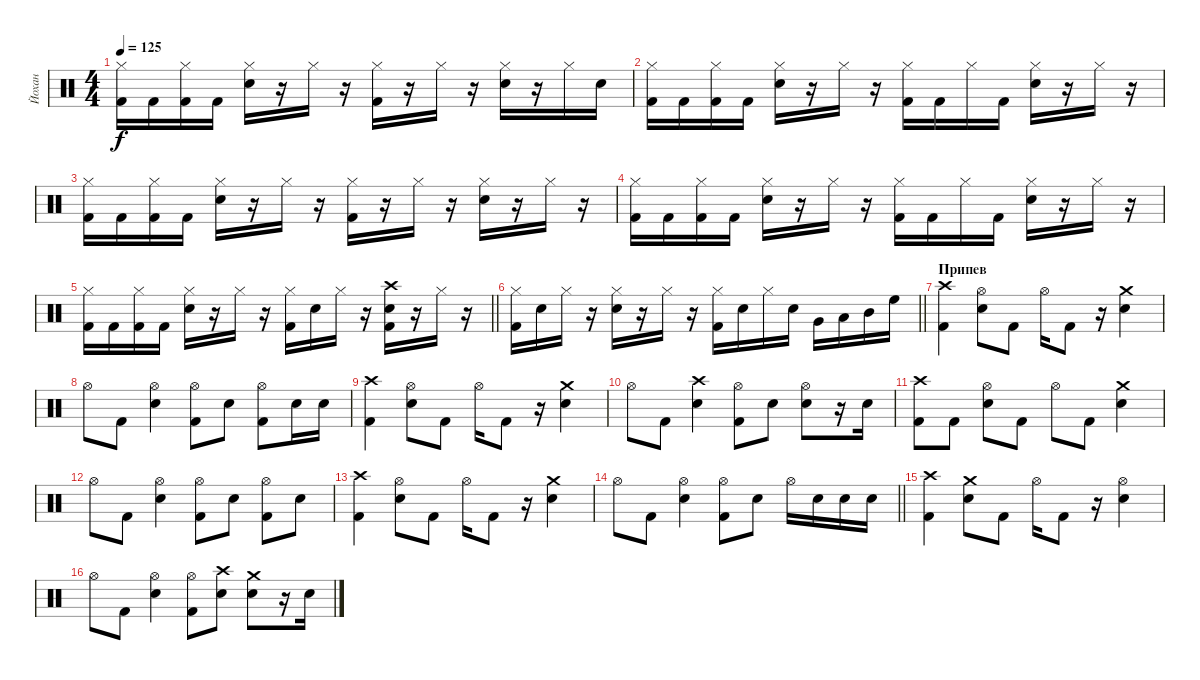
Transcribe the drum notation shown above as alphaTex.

\track ("Йохан" "Йохан") {instrument percussion}
\staff {score}
\articulation defaults
\ts (4 4)
\tempo 125
\clef neutral
\ks c
("Hi-Hat (closed)" "Kick (hit) 2").16{dy f} "Kick (hit) 2".16 ("Hi-Hat (closed)" "Kick (hit) 2").16 "Kick (hit) 2".16 ("Hi-Hat (closed)" "Snare (hit) 2").16 r.16 "Hi-Hat (closed)".16 r.16 ("Hi-Hat (closed)" "Kick (hit) 2").16 r.16 "Hi-Hat (closed)".16 r.16 ("Hi-Hat (closed)" "Snare (hit) 2").16 r.16 "Hi-Hat (closed)".16 "Snare (hit) 2".16 |
("Hi-Hat (closed)" "Kick (hit) 2").16 "Kick (hit) 2".16 ("Hi-Hat (closed)" "Kick (hit) 2").16 "Kick (hit) 2".16 ("Hi-Hat (closed)" "Snare (hit) 2").16 r.16 "Hi-Hat (closed)".16 r.16 ("Hi-Hat (closed)" "Kick (hit) 2").16 "Kick (hit) 2".16 "Hi-Hat (closed)".16 "Kick (hit) 2".16 ("Hi-Hat (closed)" "Snare (hit) 2").16 r.16 "Hi-Hat (closed)".16 r.16 |
("Hi-Hat (closed)" "Kick (hit) 2").16 "Kick (hit) 2".16 ("Hi-Hat (closed)" "Kick (hit) 2").16 "Kick (hit) 2".16 ("Hi-Hat (closed)" "Snare (hit) 2").16 r.16 "Hi-Hat (closed)".16 r.16 ("Hi-Hat (closed)" "Kick (hit) 2").16 r.16 "Hi-Hat (closed)".16 r.16 ("Hi-Hat (closed)" "Snare (hit) 2").16 r.16 "Hi-Hat (closed)".16 r.16 |
("Hi-Hat (closed)" "Kick (hit) 2").16 "Kick (hit) 2".16 ("Hi-Hat (closed)" "Kick (hit) 2").16 "Kick (hit) 2".16 ("Hi-Hat (closed)" "Snare (hit) 2").16 r.16 "Hi-Hat (closed)".16 r.16 ("Hi-Hat (closed)" "Kick (hit) 2").16 "Kick (hit) 2".16 "Hi-Hat (closed)".16 "Kick (hit) 2".16 ("Hi-Hat (closed)" "Snare (hit) 2").16 r.16 "Hi-Hat (closed)".16 r.16 |
\barLineRight lightlight
("Hi-Hat (closed)" "Kick (hit) 2").16 "Kick (hit) 2".16 ("Hi-Hat (closed)" "Kick (hit) 2").16 "Kick (hit) 2".16 ("Hi-Hat (closed)" "Snare (hit) 2").16 r.16 "Hi-Hat (closed)".16 r.16 ("Hi-Hat (closed)" "Kick (hit) 2").16 "Snare (hit) 2".16 "Hi-Hat (closed)".16 r.16 ("Crash high (hit)" "Snare (hit) 2" "Kick (hit) 2").16 r.16 "Hi-Hat (closed)".16 r.16 |
\barLineRight lightlight
("Hi-Hat (closed)" "Kick (hit) 2").16 "Snare (hit) 2".16 "Hi-Hat (closed)".16 r.16 ("Hi-Hat (closed)" "Snare (hit) 2").16 r.16 "Hi-Hat (closed)".16 r.16 ("Hi-Hat (closed)" "Kick (hit) 2").16 "Snare (hit) 2".16 "Hi-Hat (closed)".16 "Snare (hit) 2".16 "Very Low Tom (hit)".16 "Low Tom (hit)".16 "Mid Tom (hit)".16 "High Floor Tom (hit)".16 |
\section ("" "Припев")
("Crash high (hit)" "Kick (hit) 2").4 ("Hi-Hat (open)" "Snare (hit) 2").8 "Kick (hit) 2".8 "Hi-Hat (open)".16 "Kick (hit) 2".8 r.16 ("Crash medium (hit)" "Snare (hit) 2").4 |
"Hi-Hat (open)".8 "Kick (hit) 2".8 ("Hi-Hat (open)" "Snare (hit) 2").4 ("Hi-Hat (open)" "Kick (hit) 2").8 "Snare (hit) 2".8 ("Hi-Hat (open)" "Kick (hit) 2").8 "Snare (hit) 2".16 "Snare (hit) 2".16 |
("Crash high (hit)" "Kick (hit) 2").4 ("Hi-Hat (open)" "Snare (hit) 2").8 "Kick (hit) 2".8 "Hi-Hat (open)".16 "Kick (hit) 2".8 r.16 ("Crash medium (hit)" "Snare (hit) 2").4 |
"Hi-Hat (open)".8 "Kick (hit) 2".8 ("Crash high (hit)" "Snare (hit) 2").4 ("Hi-Hat (open)" "Kick (hit) 2").8 "Snare (hit) 2".8 ("Hi-Hat (open)" "Snare (hit) 2").8 r.16 "Snare (hit) 2".16 |
("Crash high (hit)" "Kick (hit) 2").8 "Kick (hit) 2".8 ("Hi-Hat (open)" "Snare (hit) 2").8 "Kick (hit) 2".8 "Hi-Hat (open)".8 "Kick (hit) 2".8 ("Crash medium (hit)" "Snare (hit) 2").4 |
"Hi-Hat (open)".8 "Kick (hit) 2".8 ("Hi-Hat (open)" "Snare (hit) 2").4 ("Hi-Hat (open)" "Kick (hit) 2").8 "Snare (hit) 2".8 ("Hi-Hat (open)" "Kick (hit) 2").8 "Snare (hit) 2".8 |
("Crash high (hit)" "Kick (hit) 2").4 ("Hi-Hat (open)" "Snare (hit) 2").8 "Kick (hit) 2".8 "Hi-Hat (open)".16 "Kick (hit) 2".8 r.16 ("Crash medium (hit)" "Snare (hit) 2").4 |
\barLineRight lightlight "Hi-Hat (open)".8 "Kick (hit) 2".8
("Hi-Hat (open)" "Snare (hit) 2").4 ("Hi-Hat (open)" "Kick (hit) 2").8 "Snare (hit) 2".8 "Hi-Hat (open)".16 "Snare (hit) 2".16 "Snare (hit) 2".16 "Snare (hit) 2".16 |
("Crash high (hit)" "Kick (hit) 2").4 ("Crash medium (hit)" "Snare (hit) 2").8 "Kick (hit) 2".8 "Hi-Hat (open)".16 "Kick (hit) 2".8 r.16 ("Hi-Hat (open)" "Snare (hit) 2").4 |
"Hi-Hat (open)".8 "Kick (hit) 2".8 ("Hi-Hat (open)" "Snare (hit) 2").4 ("Hi-Hat (open)" "Kick (hit) 2").8 ("Crash high (hit)" "Snare (hit) 2").8 ("Crash medium (hit)" "Snare (hit) 2").8 r.16 "Snare (hit) 2".16
